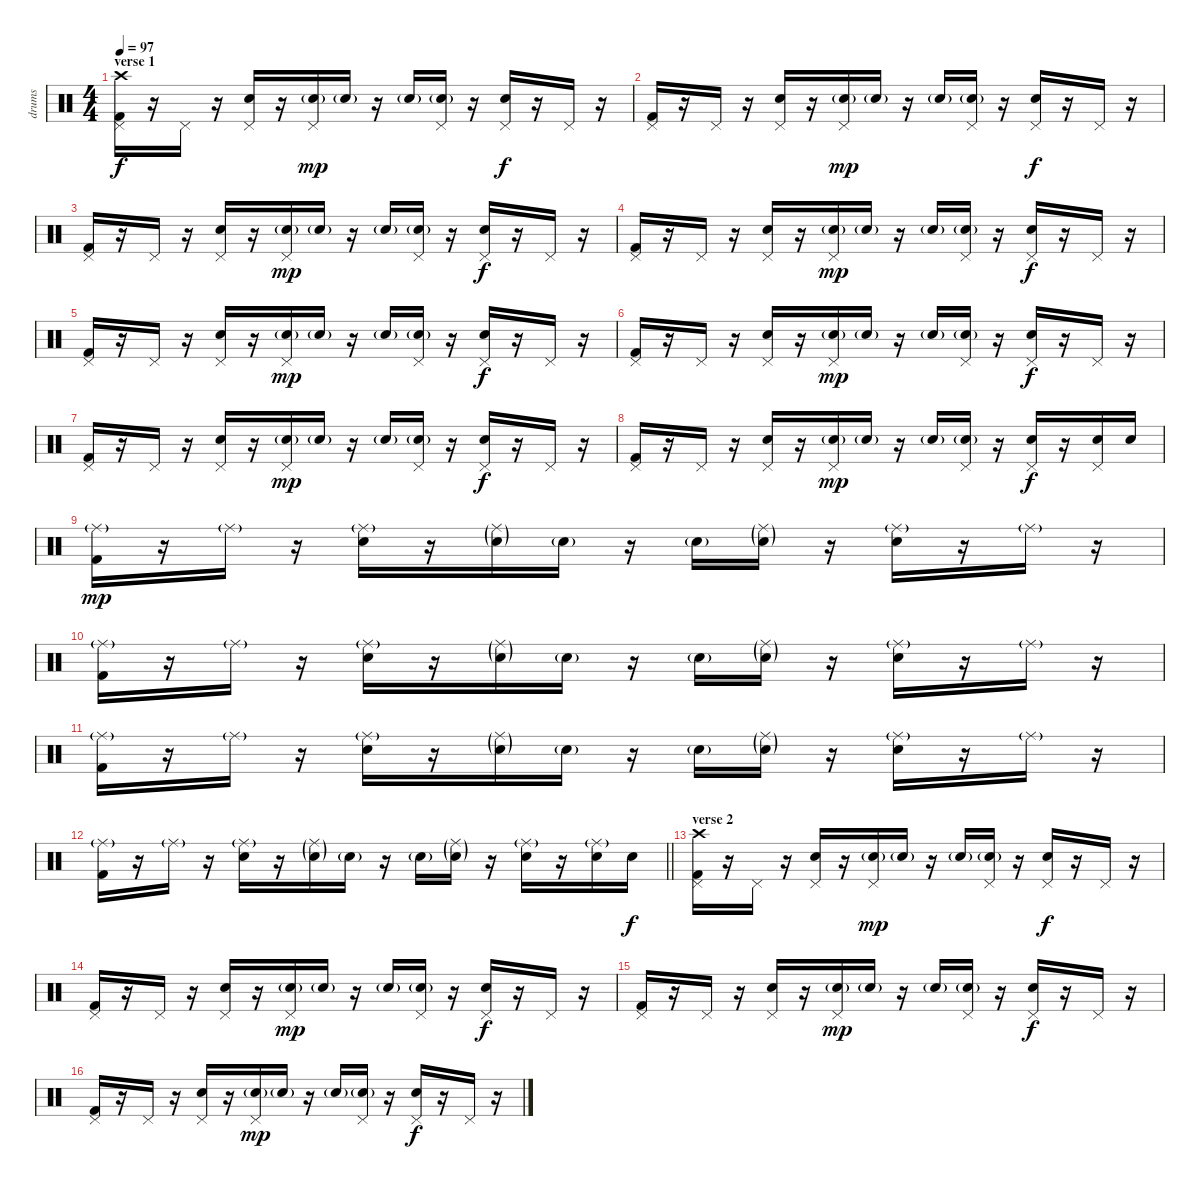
\track ("drums" "drums") {instrument percussion}
\staff {score}
\articulation defaults
\ts (4 4)
\section ("" "verse 1")
\tempo 97
\clef neutral
\ks c
("Kick (hit) 2" "Pedal Hi-Hat (hit)" "Crash high (hit)").16{dy f} r.16 "Pedal Hi-Hat (hit)".16 r.16 ("Electric Snare (hit)" "Pedal Hi-Hat (hit)").16 r.16 ("Electric Snare (hit)"{g} "Pedal Hi-Hat (hit)").16{dy mp} "Electric Snare (hit)"{g}.16 r.16 "Electric Snare (hit)"{g}.16 ("Electric Snare (hit)"{g} "Pedal Hi-Hat (hit)").16 r.16 ("Electric Snare (hit)" "Pedal Hi-Hat (hit)").16{dy f} r.16 "Pedal Hi-Hat (hit)".16 r.16 |
("Kick (hit) 2" "Pedal Hi-Hat (hit)").16 r.16 "Pedal Hi-Hat (hit)".16 r.16 ("Electric Snare (hit)" "Pedal Hi-Hat (hit)").16 r.16 ("Electric Snare (hit)"{g} "Pedal Hi-Hat (hit)").16{dy mp} "Electric Snare (hit)"{g}.16 r.16 "Electric Snare (hit)"{g}.16 ("Electric Snare (hit)"{g} "Pedal Hi-Hat (hit)").16 r.16 ("Electric Snare (hit)" "Pedal Hi-Hat (hit)").16{dy f} r.16 "Pedal Hi-Hat (hit)".16 r.16 |
("Kick (hit) 2" "Pedal Hi-Hat (hit)").16 r.16 "Pedal Hi-Hat (hit)".16 r.16 ("Electric Snare (hit)" "Pedal Hi-Hat (hit)").16 r.16 ("Electric Snare (hit)"{g} "Pedal Hi-Hat (hit)").16{dy mp} "Electric Snare (hit)"{g}.16 r.16 "Electric Snare (hit)"{g}.16 ("Electric Snare (hit)"{g} "Pedal Hi-Hat (hit)").16 r.16 ("Electric Snare (hit)" "Pedal Hi-Hat (hit)").16{dy f} r.16 "Pedal Hi-Hat (hit)".16 r.16 |
("Kick (hit) 2" "Pedal Hi-Hat (hit)").16 r.16 "Pedal Hi-Hat (hit)".16 r.16 ("Electric Snare (hit)" "Pedal Hi-Hat (hit)").16 r.16 ("Electric Snare (hit)"{g} "Pedal Hi-Hat (hit)").16{dy mp} "Electric Snare (hit)"{g}.16 r.16 "Electric Snare (hit)"{g}.16 ("Electric Snare (hit)"{g} "Pedal Hi-Hat (hit)").16 r.16 ("Electric Snare (hit)" "Pedal Hi-Hat (hit)").16{dy f} r.16 "Pedal Hi-Hat (hit)".16 r.16 |
("Kick (hit) 2" "Pedal Hi-Hat (hit)").16 r.16 "Pedal Hi-Hat (hit)".16 r.16 ("Electric Snare (hit)" "Pedal Hi-Hat (hit)").16 r.16 ("Electric Snare (hit)"{g} "Pedal Hi-Hat (hit)").16{dy mp} "Electric Snare (hit)"{g}.16 r.16 "Electric Snare (hit)"{g}.16 ("Electric Snare (hit)"{g} "Pedal Hi-Hat (hit)").16 r.16 ("Electric Snare (hit)" "Pedal Hi-Hat (hit)").16{dy f} r.16 "Pedal Hi-Hat (hit)".16 r.16 |
("Kick (hit) 2" "Pedal Hi-Hat (hit)").16 r.16 "Pedal Hi-Hat (hit)".16 r.16 ("Electric Snare (hit)" "Pedal Hi-Hat (hit)").16 r.16 ("Electric Snare (hit)"{g} "Pedal Hi-Hat (hit)").16{dy mp} "Electric Snare (hit)"{g}.16 r.16 "Electric Snare (hit)"{g}.16 ("Electric Snare (hit)"{g} "Pedal Hi-Hat (hit)").16 r.16 ("Electric Snare (hit)" "Pedal Hi-Hat (hit)").16{dy f} r.16 "Pedal Hi-Hat (hit)".16 r.16 |
("Kick (hit) 2" "Pedal Hi-Hat (hit)").16 r.16 "Pedal Hi-Hat (hit)".16 r.16 ("Electric Snare (hit)" "Pedal Hi-Hat (hit)").16 r.16 ("Electric Snare (hit)"{g} "Pedal Hi-Hat (hit)").16{dy mp} "Electric Snare (hit)"{g}.16 r.16 "Electric Snare (hit)"{g}.16 ("Electric Snare (hit)"{g} "Pedal Hi-Hat (hit)").16 r.16 ("Electric Snare (hit)" "Pedal Hi-Hat (hit)").16{dy f} r.16 "Pedal Hi-Hat (hit)".16 r.16 |
("Kick (hit) 2" "Pedal Hi-Hat (hit)").16 r.16 "Pedal Hi-Hat (hit)".16 r.16 ("Electric Snare (hit)" "Pedal Hi-Hat (hit)").16 r.16 ("Electric Snare (hit)"{g} "Pedal Hi-Hat (hit)").16{dy mp} "Electric Snare (hit)"{g}.16 r.16 "Electric Snare (hit)"{g}.16 ("Electric Snare (hit)"{g} "Pedal Hi-Hat (hit)").16 r.16 ("Electric Snare (hit)" "Pedal Hi-Hat (hit)").16{dy f} r.16 ("Electric Snare (hit)" "Pedal Hi-Hat (hit)").16 "Electric Snare (hit)".16 |
("Kick (hit) 2" "Ride (middle)"{g}).16{dy mp} r.16 "Ride (middle)"{g}.16 r.16 ("Electric Snare (hit)" "Ride (middle)"{g}).16 r.16 ("Electric Snare (hit)"{g} "Ride (middle)"{g}).16 "Electric Snare (hit)"{g}.16 r.16 "Electric Snare (hit)"{g}.16 ("Electric Snare (hit)"{g} "Ride (middle)"{g}).16 r.16 ("Electric Snare (hit)" "Ride (middle)"{g}).16 r.16 "Ride (middle)"{g}.16 r.16 |
("Kick (hit) 2" "Ride (middle)"{g}).16 r.16 "Ride (middle)"{g}.16 r.16 ("Electric Snare (hit)" "Ride (middle)"{g}).16 r.16 ("Electric Snare (hit)"{g} "Ride (middle)"{g}).16 "Electric Snare (hit)"{g}.16 r.16 "Electric Snare (hit)"{g}.16 ("Electric Snare (hit)"{g} "Ride (middle)"{g}).16 r.16 ("Electric Snare (hit)" "Ride (middle)"{g}).16 r.16 "Ride (middle)"{g}.16 r.16 |
("Kick (hit) 2" "Ride (middle)"{g}).16 r.16 "Ride (middle)"{g}.16 r.16 ("Electric Snare (hit)" "Ride (middle)"{g}).16 r.16 ("Electric Snare (hit)"{g} "Ride (middle)"{g}).16 "Electric Snare (hit)"{g}.16 r.16 "Electric Snare (hit)"{g}.16 ("Electric Snare (hit)"{g} "Ride (middle)"{g}).16 r.16 ("Electric Snare (hit)" "Ride (middle)"{g}).16 r.16 "Ride (middle)"{g}.16 r.16 |
\barLineRight lightlight
("Kick (hit) 2" "Ride (middle)"{g}).16 r.16 "Ride (middle)"{g}.16 r.16 ("Electric Snare (hit)" "Ride (middle)"{g}).16 r.16 ("Electric Snare (hit)"{g} "Ride (middle)"{g}).16 "Electric Snare (hit)"{g}.16 r.16 "Electric Snare (hit)"{g}.16 ("Electric Snare (hit)"{g} "Ride (middle)"{g}).16 r.16 ("Electric Snare (hit)" "Ride (middle)"{g}).16 r.16 ("Electric Snare (hit)" "Ride (middle)"{g}).16 "Electric Snare (hit)".16{dy f} |
\section ("" "verse 2")
("Kick (hit) 2" "Pedal Hi-Hat (hit)" "Crash high (hit)").16 r.16 "Pedal Hi-Hat (hit)".16 r.16 ("Electric Snare (hit)" "Pedal Hi-Hat (hit)").16 r.16 ("Electric Snare (hit)"{g} "Pedal Hi-Hat (hit)").16{dy mp} "Electric Snare (hit)"{g}.16 r.16 "Electric Snare (hit)"{g}.16 ("Electric Snare (hit)"{g} "Pedal Hi-Hat (hit)").16 r.16 ("Electric Snare (hit)" "Pedal Hi-Hat (hit)").16{dy f} r.16 "Pedal Hi-Hat (hit)".16 r.16 |
("Kick (hit) 2" "Pedal Hi-Hat (hit)").16 r.16 "Pedal Hi-Hat (hit)".16 r.16 ("Electric Snare (hit)" "Pedal Hi-Hat (hit)").16 r.16 ("Electric Snare (hit)"{g} "Pedal Hi-Hat (hit)").16{dy mp} "Electric Snare (hit)"{g}.16 r.16 "Electric Snare (hit)"{g}.16 ("Electric Snare (hit)"{g} "Pedal Hi-Hat (hit)").16 r.16 ("Electric Snare (hit)" "Pedal Hi-Hat (hit)").16{dy f} r.16 "Pedal Hi-Hat (hit)".16 r.16 |
("Kick (hit) 2" "Pedal Hi-Hat (hit)").16 r.16 "Pedal Hi-Hat (hit)".16 r.16 ("Electric Snare (hit)" "Pedal Hi-Hat (hit)").16 r.16 ("Electric Snare (hit)"{g} "Pedal Hi-Hat (hit)").16{dy mp} "Electric Snare (hit)"{g}.16 r.16 "Electric Snare (hit)"{g}.16 ("Electric Snare (hit)"{g} "Pedal Hi-Hat (hit)").16 r.16 ("Electric Snare (hit)" "Pedal Hi-Hat (hit)").16{dy f} r.16 "Pedal Hi-Hat (hit)".16 r.16 |
("Kick (hit) 2" "Pedal Hi-Hat (hit)").16 r.16 "Pedal Hi-Hat (hit)".16 r.16 ("Electric Snare (hit)" "Pedal Hi-Hat (hit)").16 r.16 ("Electric Snare (hit)"{g} "Pedal Hi-Hat (hit)").16{dy mp} "Electric Snare (hit)"{g}.16 r.16 "Electric Snare (hit)"{g}.16 ("Electric Snare (hit)"{g} "Pedal Hi-Hat (hit)").16 r.16 ("Electric Snare (hit)" "Pedal Hi-Hat (hit)").16{dy f} r.16 "Pedal Hi-Hat (hit)".16 r.16
